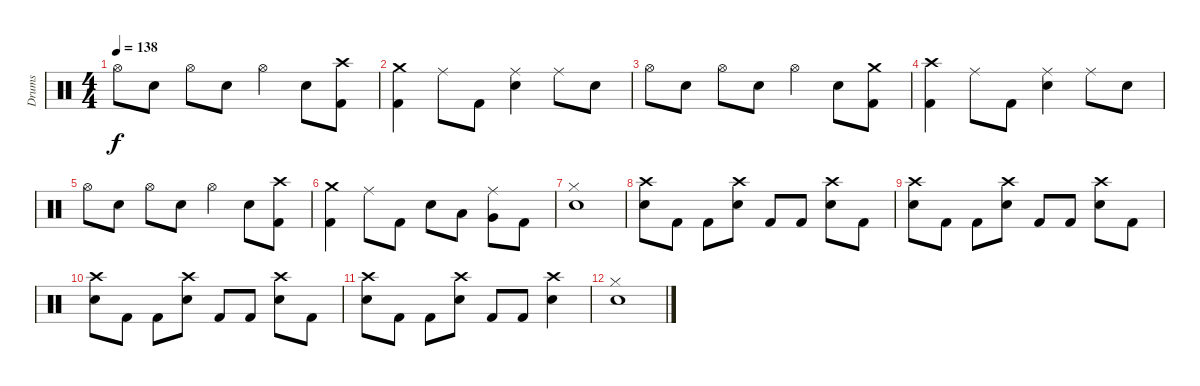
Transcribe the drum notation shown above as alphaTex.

\track ("Drums" "Drums") {instrument percussion}
\staff {score}
\articulation defaults
\ts (4 4)
\tempo 138
\clef neutral
\ks c "Hi-Hat (open)".8{dy f} "Electric Snare (hit)".8 "Hi-Hat (open)".8 "Electric Snare (hit)".8 "Hi-Hat (open)".4 "Electric Snare (hit)".8
("Crash high (hit)" "Kick (hit) 2").8 |
("Kick (hit) 2" "Crash medium (hit)").4 "Ride (middle)".8 "Kick (hit) 2".8 ("Ride (middle)" "Electric Snare (hit)").4 "Ride (middle)".8 "Electric Snare (hit)".8 |
"Hi-Hat (open)".8 "Electric Snare (hit)".8 "Hi-Hat (open)".8 "Electric Snare (hit)".8 "Hi-Hat (open)".4 "Electric Snare (hit)".8 ("Kick (hit) 2" "Crash medium (hit)").8 |
("Crash high (hit)" "Kick (hit) 2").4 "Ride (middle)".8 "Kick (hit) 2".8 ("Ride (middle)" "Electric Snare (hit)").4 "Ride (middle)".8 "Electric Snare (hit)".8 |
"Hi-Hat (open)".8 "Electric Snare (hit)".8 "Hi-Hat (open)".8 "Electric Snare (hit)".8 "Hi-Hat (open)".4 "Electric Snare (hit)".8 ("Crash high (hit)" "Kick (hit) 2").8 |
("Kick (hit) 2" "Crash medium (hit)").4 "Ride (middle)".8 "Kick (hit) 2".8 "Electric Snare (hit)".8 "Low Tom (hit)".8 ("Ride (middle)" "Very Low Tom (hit)").8 "Kick (hit) 2".8 |
("Hi-Hat (closed)" "Electric Snare (hit)").1 |
("Crash high (hit)" "Electric Snare (hit)").8 "Kick (hit) 2".8 "Kick (hit) 2".8 ("Crash high (hit)" "Electric Snare (hit)").8 "Kick (hit) 2".8 "Kick (hit) 2".8 ("Crash high (hit)" "Electric Snare (hit)").8 "Kick (hit) 2".8 |
("Crash high (hit)" "Electric Snare (hit)").8 "Kick (hit) 2".8 "Kick (hit) 2".8 ("Crash high (hit)" "Electric Snare (hit)").8 "Kick (hit) 2".8 "Kick (hit) 2".8 ("Crash high (hit)" "Electric Snare (hit)").8 "Kick (hit) 2".8 |
("Crash high (hit)" "Electric Snare (hit)").8 "Kick (hit) 2".8 "Kick (hit) 2".8 ("Crash high (hit)" "Electric Snare (hit)").8 "Kick (hit) 2".8 "Kick (hit) 2".8 ("Crash high (hit)" "Electric Snare (hit)").8 "Kick (hit) 2".8 |
("Crash high (hit)" "Electric Snare (hit)").8 "Kick (hit) 2".8 "Kick (hit) 2".8 ("Crash high (hit)" "Electric Snare (hit)").8 "Kick (hit) 2".8 "Kick (hit) 2".8 ("Crash high (hit)" "Electric Snare (hit)").4 |
("Hi-Hat (closed)" "Electric Snare (hit)").1
